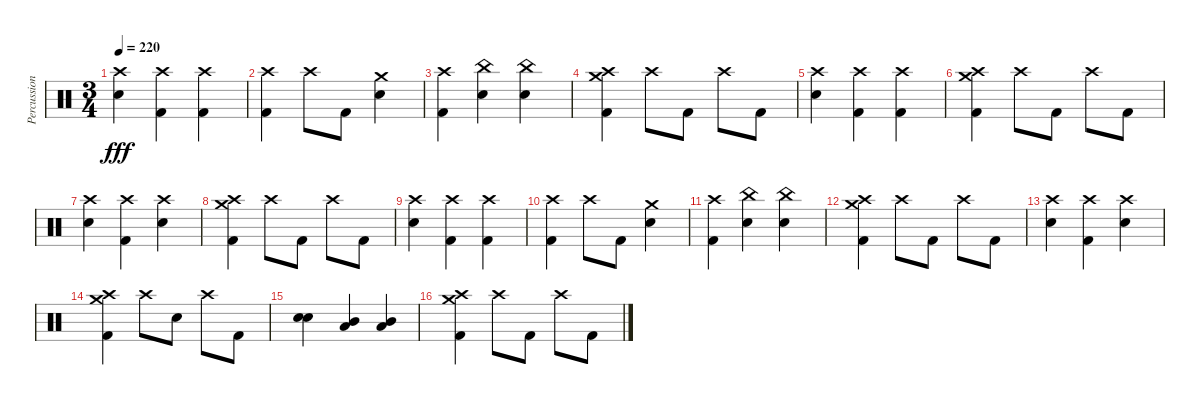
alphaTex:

\track ("Percussions" "Percussion") {instrument percussion}
\staff {score}
\articulation defaults
\ts (3 4)
\tempo 220
\clef neutral
\ks c
("Crash high (hit)" "Electric Snare (hit)").4{dy fff} ("Crash high (hit)" "Kick (hit) 2").4 ("Crash high (hit)" "Kick (hit) 2").4 |
("Crash high (hit)" "Kick (hit) 2").4 "Crash high (hit)".8 "Kick (hit) 2".8 ("Crash medium (hit)" "Electric Snare (hit)").4 |
("Crash high (hit)" "Kick (hit) 2").4 ("China (hit)" "Electric Snare (hit)").4 ("China (hit)" "Electric Snare (hit)").4 |
("Crash high (hit)" "Crash medium (hit)" "Kick (hit) 2").4{bd 240} "Crash high (hit)".8 "Kick (hit) 2".8 "Crash high (hit)".8 "Kick (hit) 2".8 |
("Crash high (hit)" "Electric Snare (hit)").4 ("Crash high (hit)" "Kick (hit) 2").4 ("Crash high (hit)" "Kick (hit) 2").4 |
("Crash high (hit)" "Crash medium (hit)" "Kick (hit) 2").4 "Crash high (hit)".8 "Kick (hit) 2".8 "Crash high (hit)".8 "Kick (hit) 2".8 |
("Crash high (hit)" "Electric Snare (hit)").4 ("Crash high (hit)" "Kick (hit) 2").4 ("Crash high (hit)" "Electric Snare (hit)").4 |
("Crash high (hit)" "Crash medium (hit)" "Kick (hit) 2").4 "Crash high (hit)".8 "Kick (hit) 2".8 "Crash high (hit)".8 "Kick (hit) 2".8 |
("Crash high (hit)" "Electric Snare (hit)").4 ("Crash high (hit)" "Kick (hit) 2").4 ("Crash high (hit)" "Kick (hit) 2").4 |
("Crash high (hit)" "Kick (hit) 2").4 "Crash high (hit)".8 "Kick (hit) 2".8 ("Crash medium (hit)" "Electric Snare (hit)").4 |
("Crash high (hit)" "Kick (hit) 2").4 ("China (hit)" "Electric Snare (hit)").4 ("China (hit)" "Electric Snare (hit)").4 |
("Crash high (hit)" "Crash medium (hit)" "Kick (hit) 2").4 "Crash high (hit)".8 "Kick (hit) 2".8 "Crash high (hit)".8 "Kick (hit) 2".8 |
("Crash high (hit)" "Electric Snare (hit)").4 ("Crash high (hit)" "Kick (hit) 2").4 ("Crash high (hit)" "Electric Snare (hit)").4 |
("Crash high (hit)" "Crash medium (hit)" "Kick (hit) 2").4 "Crash high (hit)".8 "Electric Snare (hit)".8 "Crash high (hit)".8 "Kick (hit) 2".8 |
("Electric Snare (hit)" "Electric Snare (hit)").4{bd 240} ("Mid Tom (hit)" "Low Tom (hit)").4{bd 240} ("Low Floor Tom (hit)" "Mid Tom (hit)").4{bd 240} |
("Crash high (hit)" "Crash medium (hit)" "Kick (hit) 2").4{bd 240} "Crash high (hit)".8 "Kick (hit) 2".8 "Crash high (hit)".8 "Kick (hit) 2".8
